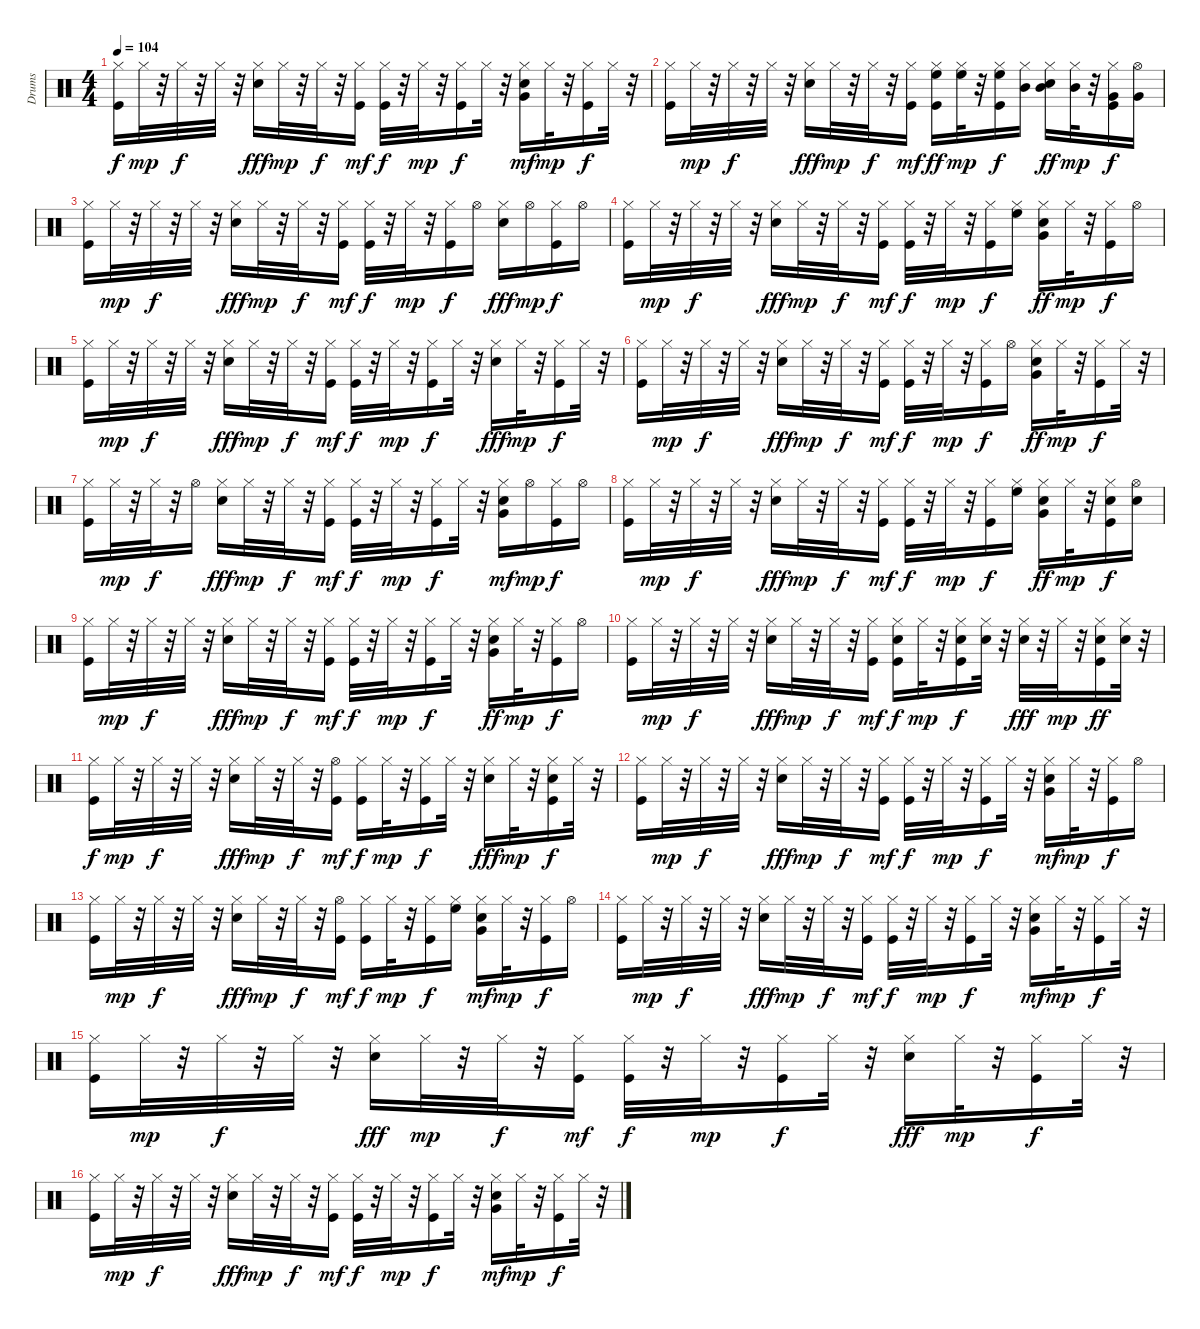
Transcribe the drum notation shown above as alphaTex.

\track ("Drums   " "Drums   ") {instrument percussion}
\staff {score}
\articulation defaults
\ts (4 4)
\tempo 104
\clef neutral
\ks c
("Kick (hit)" "Hi-Hat (closed)").16{dy f} "Hi-Hat (closed)".32{dy mp} r.32 "Hi-Hat (closed)".32{dy f} r.32 "Hi-Hat (closed)".32 r.32 ("Electric Snare (hit)" "Hi-Hat (closed)").16{dy fff} "Hi-Hat (closed)".32{dy mp} r.32 "Hi-Hat (closed)".32{dy f} r.32 ("Kick (hit)" "Hi-Hat (closed)").16{dy mf} ("Kick (hit)" "Hi-Hat (closed)").32{dy f} r.32 "Hi-Hat (closed)".32{dy mp} r.32 ("Kick (hit)" "Hi-Hat (closed)").16{dy f} "Hi-Hat (closed)".32 r.32 ("Electric Snare (hit)" "Hi-Hat (closed)" "Very Low Tom (hit)").16{dy mf} "Hi-Hat (closed)".32{dy mp} r.32 ("Kick (hit)" "Hi-Hat (closed)").16{dy f} "Hi-Hat (closed)".32 r.32 |
("Kick (hit)" "Hi-Hat (closed)").16 "Hi-Hat (closed)".32{dy mp} r.32 "Hi-Hat (closed)".32{dy f} r.32 "Hi-Hat (closed)".32 r.32 ("Electric Snare (hit)" "Hi-Hat (closed)").16{dy fff} "Hi-Hat (closed)".32{dy mp} r.32 "Hi-Hat (closed)".32{dy f} r.32 ("Kick (hit)" "Hi-Hat (closed)").16{dy mf} ("Kick (hit)" "Hi-Hat (closed)" "High Floor Tom (hit)").16{dy ff} ("Hi-Hat (closed)" "High Floor Tom (hit)").32{dy mp} r.32 ("Kick (hit)" "Hi-Hat (closed)" "High Floor Tom (hit)").16{dy f} ("Hi-Hat (closed)" "Mid Tom (hit)").16 ("Electric Snare (hit)" "Hi-Hat (closed)" "Mid Tom (hit)").16{dy ff} ("Hi-Hat (closed)" "Mid Tom (hit)").32{dy mp} r.32 ("Kick (hit)" "Hi-Hat (closed)" "Very Low Tom (hit)").16{dy f} ("Very Low Tom (hit)" "Hi-Hat (open)").16 |
("Kick (hit)" "Hi-Hat (closed)").16 "Hi-Hat (closed)".32{dy mp} r.32 "Hi-Hat (closed)".32{dy f} r.32 "Hi-Hat (closed)".32 r.32 ("Electric Snare (hit)" "Hi-Hat (closed)").16{dy fff} "Hi-Hat (closed)".32{dy mp} r.32 "Hi-Hat (closed)".32{dy f} r.32 ("Kick (hit)" "Hi-Hat (closed)").16{dy mf} ("Kick (hit)" "Hi-Hat (closed)").32{dy f} r.32 "Hi-Hat (closed)".32{dy mp} r.32 ("Kick (hit)" "Hi-Hat (closed)").16{dy f} "Hi-Hat (open)".16 ("Electric Snare (hit)" "Hi-Hat (closed)").16{dy fff} "Hi-Hat (open)".16{dy mp} ("Kick (hit)" "Hi-Hat (closed)").16{dy f} "Hi-Hat (open)".16 |
("Kick (hit)" "Hi-Hat (closed)").16 "Hi-Hat (closed)".32{dy mp} r.32 "Hi-Hat (closed)".32{dy f} r.32 "Hi-Hat (closed)".32 r.32 ("Electric Snare (hit)" "Hi-Hat (closed)").16{dy fff} "Hi-Hat (closed)".32{dy mp} r.32 "Hi-Hat (closed)".32{dy f} r.32 ("Kick (hit)" "Hi-Hat (closed)").16{dy mf} ("Kick (hit)" "Hi-Hat (closed)").32{dy f} r.32 "Hi-Hat (closed)".32{dy mp} r.32 ("Kick (hit)" "Hi-Hat (closed)").16{dy f} ("Hi-Hat (closed)" "High Floor Tom (hit)").16 ("Electric Snare (hit)" "Hi-Hat (closed)" "Very Low Tom (hit)").16{dy ff} "Hi-Hat (closed)".32{dy mp} r.32 ("Kick (hit)" "Hi-Hat (closed)").16{dy f} "Hi-Hat (open)".16 |
("Kick (hit)" "Hi-Hat (closed)").16 "Hi-Hat (closed)".32{dy mp} r.32 "Hi-Hat (closed)".32{dy f} r.32 "Hi-Hat (closed)".32 r.32 ("Electric Snare (hit)" "Hi-Hat (closed)").16{dy fff} "Hi-Hat (closed)".32{dy mp} r.32 "Hi-Hat (closed)".32{dy f} r.32 ("Kick (hit)" "Hi-Hat (closed)").16{dy mf} ("Kick (hit)" "Hi-Hat (closed)").32{dy f} r.32 "Hi-Hat (closed)".32{dy mp} r.32 ("Kick (hit)" "Hi-Hat (closed)").16{dy f} "Hi-Hat (closed)".32 r.32 ("Electric Snare (hit)" "Hi-Hat (closed)").16{dy fff} "Hi-Hat (closed)".32{dy mp} r.32 ("Kick (hit)" "Hi-Hat (closed)").16{dy f} "Hi-Hat (closed)".32 r.32 |
("Kick (hit)" "Hi-Hat (closed)").16 "Hi-Hat (closed)".32{dy mp} r.32 "Hi-Hat (closed)".32{dy f} r.32 "Hi-Hat (closed)".32 r.32 ("Electric Snare (hit)" "Hi-Hat (closed)").16{dy fff} "Hi-Hat (closed)".32{dy mp} r.32 "Hi-Hat (closed)".32{dy f} r.32 ("Kick (hit)" "Hi-Hat (closed)").16{dy mf} ("Kick (hit)" "Hi-Hat (closed)").32{dy f} r.32 "Hi-Hat (closed)".32{dy mp} r.32 ("Kick (hit)" "Hi-Hat (closed)").16{dy f} "Hi-Hat (open)".16 ("Electric Snare (hit)" "Hi-Hat (closed)" "Very Low Tom (hit)").16{dy ff} "Hi-Hat (closed)".32{dy mp} r.32 ("Kick (hit)" "Hi-Hat (closed)").16{dy f} "Hi-Hat (closed)".32 r.32 |
("Kick (hit)" "Hi-Hat (closed)").16 "Hi-Hat (closed)".32{dy mp} r.32 "Hi-Hat (closed)".32{dy f} r.32 "Hi-Hat (open)".16 ("Electric Snare (hit)" "Hi-Hat (closed)").16{dy fff} "Hi-Hat (closed)".32{dy mp} r.32 "Hi-Hat (closed)".32{dy f} r.32 ("Kick (hit)" "Hi-Hat (closed)").16{dy mf} ("Kick (hit)" "Hi-Hat (closed)").32{dy f} r.32 "Hi-Hat (closed)".32{dy mp} r.32 ("Kick (hit)" "Hi-Hat (closed)").16{dy f} "Hi-Hat (closed)".32 r.32 ("Electric Snare (hit)" "Hi-Hat (closed)" "Very Low Tom (hit)").16{dy mf} "Hi-Hat (open)".16{dy mp} ("Kick (hit)" "Hi-Hat (closed)").16{dy f} "Hi-Hat (open)".16 |
("Kick (hit)" "Hi-Hat (closed)").16 "Hi-Hat (closed)".32{dy mp} r.32 "Hi-Hat (closed)".32{dy f} r.32 "Hi-Hat (closed)".32 r.32 ("Electric Snare (hit)" "Hi-Hat (closed)").16{dy fff} "Hi-Hat (closed)".32{dy mp} r.32 "Hi-Hat (closed)".32{dy f} r.32 ("Kick (hit)" "Hi-Hat (closed)").16{dy mf} ("Kick (hit)" "Hi-Hat (closed)").32{dy f} r.32 "Hi-Hat (closed)".32{dy mp} r.32 ("Kick (hit)" "Hi-Hat (closed)").16{dy f} ("Hi-Hat (closed)" "High Floor Tom (hit)").16 ("Electric Snare (hit)" "Hi-Hat (closed)" "Very Low Tom (hit)").16{dy ff} "Hi-Hat (closed)".32{dy mp} r.32 ("Kick (hit)" "Electric Snare (hit)" "Hi-Hat (closed)").16{dy f} ("Electric Snare (hit)" "Hi-Hat (open)").16 |
("Kick (hit)" "Hi-Hat (closed)").16 "Hi-Hat (closed)".32{dy mp} r.32 "Hi-Hat (closed)".32{dy f} r.32 "Hi-Hat (closed)".32 r.32 ("Electric Snare (hit)" "Hi-Hat (closed)").16{dy fff} "Hi-Hat (closed)".32{dy mp} r.32 "Hi-Hat (closed)".32{dy f} r.32 ("Kick (hit)" "Hi-Hat (closed)").16{dy mf} ("Kick (hit)" "Hi-Hat (closed)").32{dy f} r.32 "Hi-Hat (closed)".32{dy mp} r.32 ("Kick (hit)" "Hi-Hat (closed)").16{dy f} "Hi-Hat (closed)".32 r.32 ("Electric Snare (hit)" "Hi-Hat (closed)" "Very Low Tom (hit)").16{dy ff} "Hi-Hat (closed)".32{dy mp} r.32 ("Kick (hit)" "Hi-Hat (closed)").16{dy f} "Hi-Hat (open)".16 |
("Kick (hit)" "Hi-Hat (closed)").16 "Hi-Hat (closed)".32{dy mp} r.32 "Hi-Hat (closed)".32{dy f} r.32 "Hi-Hat (closed)".32 r.32 ("Electric Snare (hit)" "Hi-Hat (closed)").16{dy fff} "Hi-Hat (closed)".32{dy mp} r.32 "Hi-Hat (closed)".32{dy f} r.32 ("Kick (hit)" "Hi-Hat (closed)").16{dy mf} ("Kick (hit)" "Electric Snare (hit)" "Hi-Hat (closed)").16{dy f} "Hi-Hat (closed)".32{dy mp} r.32 ("Kick (hit)" "Electric Snare (hit)" "Hi-Hat (closed)").16{dy f} ("Electric Snare (hit)" "Hi-Hat (closed)").32 r.32 ("Electric Snare (hit)" "Hi-Hat (closed)").32{dy fff} r.32 "Hi-Hat (closed)".32{dy mp} r.32 ("Kick (hit)" "Electric Snare (hit)" "Hi-Hat (closed)").16{dy ff} ("Electric Snare (hit)" "Hi-Hat (closed)").32 r.32 |
("Kick (hit)" "Hi-Hat (closed)").16{dy f} "Hi-Hat (closed)".32{dy mp} r.32 "Hi-Hat (closed)".32{dy f} r.32 "Hi-Hat (closed)".32 r.32 ("Electric Snare (hit)" "Hi-Hat (closed)").16{dy fff} "Hi-Hat (closed)".32{dy mp} r.32 "Hi-Hat (closed)".32{dy f} r.32 ("Kick (hit)" "Hi-Hat (open)").16{dy mf} ("Kick (hit)" "Hi-Hat (closed)").16{dy f} "Hi-Hat (closed)".32{dy mp} r.32 ("Kick (hit)" "Hi-Hat (closed)").16{dy f} "Hi-Hat (closed)".32 r.32 ("Electric Snare (hit)" "Hi-Hat (closed)").16{dy fff} "Hi-Hat (closed)".32{dy mp} r.32 ("Kick (hit)" "Electric Snare (hit)" "Hi-Hat (closed)").16{dy f} "Hi-Hat (closed)".32 r.32 |
("Kick (hit)" "Hi-Hat (closed)").16 "Hi-Hat (closed)".32{dy mp} r.32 "Hi-Hat (closed)".32{dy f} r.32 "Hi-Hat (closed)".32 r.32 ("Electric Snare (hit)" "Hi-Hat (closed)").16{dy fff} "Hi-Hat (closed)".32{dy mp} r.32 "Hi-Hat (closed)".32{dy f} r.32 ("Kick (hit)" "Hi-Hat (closed)").16{dy mf} ("Kick (hit)" "Hi-Hat (closed)").32{dy f} r.32 "Hi-Hat (closed)".32{dy mp} r.32 ("Kick (hit)" "Hi-Hat (closed)").16{dy f} "Hi-Hat (closed)".32 r.32 ("Electric Snare (hit)" "Hi-Hat (closed)" "Very Low Tom (hit)").16{dy mf} "Hi-Hat (closed)".32{dy mp} r.32 ("Kick (hit)" "Hi-Hat (closed)").16{dy f} "Hi-Hat (open)".16 |
("Kick (hit)" "Hi-Hat (closed)").16 "Hi-Hat (closed)".32{dy mp} r.32 "Hi-Hat (closed)".32{dy f} r.32 "Hi-Hat (closed)".32 r.32 ("Electric Snare (hit)" "Hi-Hat (closed)").16{dy fff} "Hi-Hat (closed)".32{dy mp} r.32 "Hi-Hat (closed)".32{dy f} r.32 ("Kick (hit)" "Hi-Hat (open)").16{dy mf} ("Kick (hit)" "Hi-Hat (closed)").16{dy f} "Hi-Hat (closed)".32{dy mp} r.32 ("Kick (hit)" "Hi-Hat (closed)").16{dy f} ("Hi-Hat (closed)" "High Floor Tom (hit)").16 ("Electric Snare (hit)" "Hi-Hat (closed)" "Very Low Tom (hit)").16{dy mf} "Hi-Hat (closed)".32{dy mp} r.32 ("Kick (hit)" "Hi-Hat (closed)").16{dy f} "Hi-Hat (open)".16 |
("Kick (hit)" "Hi-Hat (closed)").16 "Hi-Hat (closed)".32{dy mp} r.32 "Hi-Hat (closed)".32{dy f} r.32 "Hi-Hat (closed)".32 r.32 ("Electric Snare (hit)" "Hi-Hat (closed)").16{dy fff} "Hi-Hat (closed)".32{dy mp} r.32 "Hi-Hat (closed)".32{dy f} r.32 ("Kick (hit)" "Hi-Hat (closed)").16{dy mf} ("Kick (hit)" "Hi-Hat (closed)").32{dy f} r.32 "Hi-Hat (closed)".32{dy mp} r.32 ("Kick (hit)" "Hi-Hat (closed)").16{dy f} "Hi-Hat (closed)".32 r.32 ("Electric Snare (hit)" "Hi-Hat (closed)" "Very Low Tom (hit)").16{dy mf} "Hi-Hat (closed)".32{dy mp} r.32 ("Kick (hit)" "Hi-Hat (closed)").16{dy f} "Hi-Hat (closed)".32 r.32 |
("Kick (hit)" "Hi-Hat (closed)").16 "Hi-Hat (closed)".32{dy mp} r.32 "Hi-Hat (closed)".32{dy f} r.32 "Hi-Hat (closed)".32 r.32 ("Electric Snare (hit)" "Hi-Hat (closed)").16{dy fff} "Hi-Hat (closed)".32{dy mp} r.32 "Hi-Hat (closed)".32{dy f} r.32 ("Kick (hit)" "Hi-Hat (closed)").16{dy mf} ("Kick (hit)" "Hi-Hat (closed)").32{dy f} r.32 "Hi-Hat (closed)".32{dy mp} r.32 ("Kick (hit)" "Hi-Hat (closed)").16{dy f} "Hi-Hat (closed)".32 r.32 ("Electric Snare (hit)" "Hi-Hat (closed)").16{dy fff} "Hi-Hat (closed)".32{dy mp} r.32 ("Kick (hit)" "Hi-Hat (closed)").16{dy f} "Hi-Hat (closed)".32 r.32 |
("Kick (hit)" "Hi-Hat (closed)").16 "Hi-Hat (closed)".32{dy mp} r.32 "Hi-Hat (closed)".32{dy f} r.32 "Hi-Hat (closed)".32 r.32 ("Electric Snare (hit)" "Hi-Hat (closed)").16{dy fff} "Hi-Hat (closed)".32{dy mp} r.32 "Hi-Hat (closed)".32{dy f} r.32 ("Kick (hit)" "Hi-Hat (closed)").16{dy mf} ("Kick (hit)" "Hi-Hat (closed)").32{dy f} r.32 "Hi-Hat (closed)".32{dy mp} r.32 ("Kick (hit)" "Hi-Hat (closed)").16{dy f} "Hi-Hat (closed)".32 r.32 ("Electric Snare (hit)" "Hi-Hat (closed)" "Very Low Tom (hit)").16{dy mf} "Hi-Hat (closed)".32{dy mp} r.32 ("Kick (hit)" "Hi-Hat (closed)").16{dy f} "Hi-Hat (closed)".32 r.32
